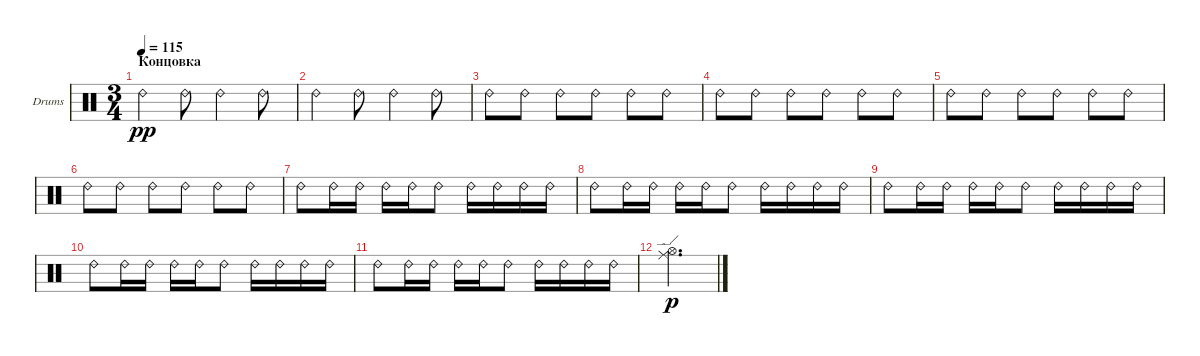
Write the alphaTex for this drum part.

\defaultSystemsLayout 4
\bracketExtendMode groupsimilarinstruments
\firstSystemTrackNameOrientation horizontal
\otherSystemsTrackNameOrientation horizontal
\track ("Е. Кулаков" "Drums") {instrument percussion}
\staff {score}
\articulation defaults
\ts (3 4)
\section ("" "Концовка")
\tempo 115
\clef neutral
\scale
0.333333
\ks c "Ride (bell) 2".4{dy pp} "Ride (bell) 2".8 "Ride (bell) 2".4 "Ride (bell) 2".8
|
\scale
0.333333 "Ride (bell) 2".4 "Ride (bell) 2".8 "Ride (bell) 2".4 "Ride (bell) 2".8 |
\scale
0.333333 "Ride (bell) 2".8 "Ride (bell) 2".8 "Ride (bell) 2".8 "Ride (bell) 2".8 "Ride (bell) 2".8 "Ride (bell) 2".8 |
\scale
0.333333 "Ride (bell) 2".8 "Ride (bell) 2".8 "Ride (bell) 2".8 "Ride (bell) 2".8 "Ride (bell) 2".8 "Ride (bell) 2".8 |
\scale
0.333333 "Ride (bell) 2".8 "Ride (bell) 2".8 "Ride (bell) 2".8 "Ride (bell) 2".8 "Ride (bell) 2".8 "Ride (bell) 2".8 |
"Ride (bell) 2".8 "Ride (bell) 2".8 "Ride (bell) 2".8 "Ride (bell) 2".8 "Ride (bell) 2".8 "Ride (bell) 2".8 |
\scale
0.333333 "Ride (bell) 2".8 "Ride (bell) 2".16 "Ride (bell) 2".16 "Ride (bell) 2".16 "Ride (bell) 2".16 "Ride (bell) 2".8 "Ride (bell) 2".16 "Ride (bell) 2".16 "Ride (bell) 2".16 "Ride (bell) 2".16 |
\scale
0.333333 "Ride (bell) 2".8 "Ride (bell) 2".16 "Ride (bell) 2".16 "Ride (bell) 2".16 "Ride (bell) 2".16 "Ride (bell) 2".8 "Ride (bell) 2".16 "Ride (bell) 2".16 "Ride (bell) 2".16 "Ride (bell) 2".16 |
"Ride (bell) 2".8 "Ride (bell) 2".16 "Ride (bell) 2".16 "Ride (bell) 2".16 "Ride (bell) 2".16 "Ride (bell) 2".8 "Ride (bell) 2".16 "Ride (bell) 2".16 "Ride (bell) 2".16 "Ride (bell) 2".16 |
\scale
0.333333 "Ride (bell) 2".8 "Ride (bell) 2".16 "Ride (bell) 2".16 "Ride (bell) 2".16 "Ride (bell) 2".16 "Ride (bell) 2".8 "Ride (bell) 2".16 "Ride (bell) 2".16 "Ride (bell) 2".16 "Ride (bell) 2".16 |
\scale
0.333333 "Ride (bell) 2".8 "Ride (bell) 2".16 "Ride (bell) 2".16 "Ride (bell) 2".16 "Ride (bell) 2".16 "Ride (bell) 2".8 "Ride (bell) 2".16 "Ride (bell) 2".16 "Ride (bell) 2".16 "Ride (bell) 2".16 |
\scale
0.333333 ("Ride (edge)" "Hi-Hat (open)").2{d dy p}
